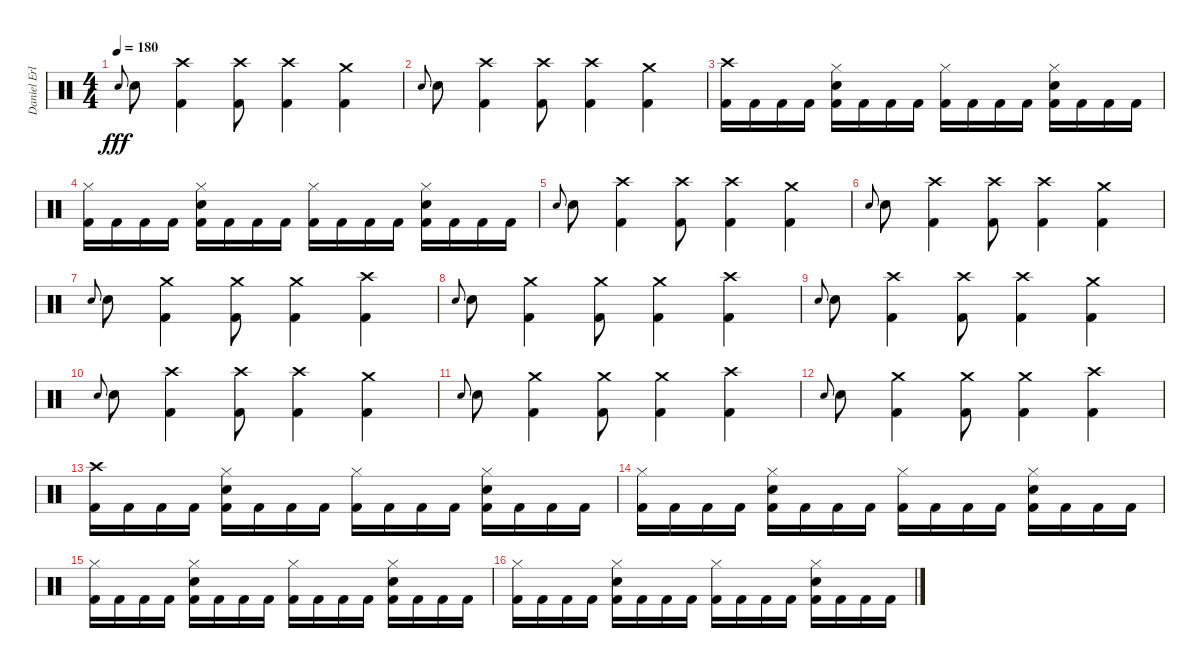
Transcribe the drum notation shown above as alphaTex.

\track ("Daniel Erlandsson" "Daniel Erl") {instrument percussion}
\staff {score}
\articulation defaults
\ts (4 4)
\tempo 180
\clef neutral
\ks c "Electric Snare (hit)".8{gr onbeat dy fff} "Electric Snare (hit)".8
("Crash high (hit)" "Kick (hit) 2").4 ("Crash high (hit)" "Kick (hit) 2").8 ("Crash high (hit)" "Kick (hit) 2").4 ("Crash medium (hit)" "Kick (hit) 2").4 |
"Electric Snare (hit)".8{gr onbeat} "Electric Snare (hit)".8 ("Crash high (hit)" "Kick (hit) 2").4 ("Crash high (hit)" "Kick (hit) 2").8 ("Crash high (hit)" "Kick (hit) 2").4 ("Crash medium (hit)" "Kick (hit) 2").4 |
("Crash high (hit)" "Kick (hit) 2").16 "Kick (hit) 2".16 "Kick (hit) 2".16 "Kick (hit) 2".16 ("Hi-Hat (closed)" "Electric Snare (hit)" "Kick (hit) 2").16 "Kick (hit) 2".16 "Kick (hit) 2".16 "Kick (hit) 2".16 ("Hi-Hat (closed)" "Kick (hit) 2").16 "Kick (hit) 2".16 "Kick (hit) 2".16 "Kick (hit) 2".16 ("Hi-Hat (closed)" "Electric Snare (hit)" "Kick (hit) 2").16 "Kick (hit) 2".16 "Kick (hit) 2".16 "Kick (hit) 2".16 |
("Hi-Hat (closed)" "Kick (hit) 2").16 "Kick (hit) 2".16 "Kick (hit) 2".16 "Kick (hit) 2".16 ("Hi-Hat (closed)" "Electric Snare (hit)" "Kick (hit) 2").16 "Kick (hit) 2".16 "Kick (hit) 2".16 "Kick (hit) 2".16 ("Hi-Hat (closed)" "Kick (hit) 2").16 "Kick (hit) 2".16 "Kick (hit) 2".16 "Kick (hit) 2".16 ("Hi-Hat (closed)" "Electric Snare (hit)" "Kick (hit) 2").16 "Kick (hit) 2".16 "Kick (hit) 2".16 "Kick (hit) 2".16 |
"Electric Snare (hit)".8{gr onbeat} "Electric Snare (hit)".8 ("Crash high (hit)" "Kick (hit) 2").4 ("Crash high (hit)" "Kick (hit) 2").8 ("Crash high (hit)" "Kick (hit) 2").4 ("Crash medium (hit)" "Kick (hit) 2").4 |
"Electric Snare (hit)".8{gr onbeat} "Electric Snare (hit)".8 ("Crash high (hit)" "Kick (hit) 2").4 ("Crash high (hit)" "Kick (hit) 2").8 ("Crash high (hit)" "Kick (hit) 2").4 ("Crash medium (hit)" "Kick (hit) 2").4 |
"Electric Snare (hit)".8{gr onbeat} "Electric Snare (hit)".8 ("Crash medium (hit)" "Kick (hit) 2").4 ("Crash medium (hit)" "Kick (hit) 2").8 ("Crash medium (hit)" "Kick (hit) 2").4 ("Crash high (hit)" "Kick (hit) 2").4 |
"Electric Snare (hit)".8{gr onbeat} "Electric Snare (hit)".8 ("Crash medium (hit)" "Kick (hit) 2").4 ("Crash medium (hit)" "Kick (hit) 2").8 ("Crash medium (hit)" "Kick (hit) 2").4 ("Crash high (hit)" "Kick (hit) 2").4 |
"Electric Snare (hit)".8{gr onbeat} "Electric Snare (hit)".8 ("Crash high (hit)" "Kick (hit) 2").4 ("Crash high (hit)" "Kick (hit) 2").8 ("Crash high (hit)" "Kick (hit) 2").4 ("Crash medium (hit)" "Kick (hit) 2").4 |
"Electric Snare (hit)".8{gr onbeat} "Electric Snare (hit)".8 ("Crash high (hit)" "Kick (hit) 2").4 ("Crash high (hit)" "Kick (hit) 2").8 ("Crash high (hit)" "Kick (hit) 2").4 ("Crash medium (hit)" "Kick (hit) 2").4 |
"Electric Snare (hit)".8{gr onbeat} "Electric Snare (hit)".8 ("Crash medium (hit)" "Kick (hit) 2").4 ("Crash medium (hit)" "Kick (hit) 2").8 ("Crash medium (hit)" "Kick (hit) 2").4 ("Crash high (hit)" "Kick (hit) 2").4 |
"Electric Snare (hit)".8{gr onbeat} "Electric Snare (hit)".8 ("Crash medium (hit)" "Kick (hit) 2").4 ("Crash medium (hit)" "Kick (hit) 2").8 ("Crash medium (hit)" "Kick (hit) 2").4 ("Crash high (hit)" "Kick (hit) 2").4 |
("Crash high (hit)" "Kick (hit) 2").16 "Kick (hit) 2".16 "Kick (hit) 2".16 "Kick (hit) 2".16 ("Hi-Hat (closed)" "Electric Snare (hit)" "Kick (hit) 2").16 "Kick (hit) 2".16 "Kick (hit) 2".16 "Kick (hit) 2".16 ("Hi-Hat (closed)" "Kick (hit) 2").16 "Kick (hit) 2".16 "Kick (hit) 2".16 "Kick (hit) 2".16 ("Hi-Hat (closed)" "Electric Snare (hit)" "Kick (hit) 2").16 "Kick (hit) 2".16 "Kick (hit) 2".16 "Kick (hit) 2".16 |
("Hi-Hat (closed)" "Kick (hit) 2").16 "Kick (hit) 2".16 "Kick (hit) 2".16 "Kick (hit) 2".16 ("Hi-Hat (closed)" "Electric Snare (hit)" "Kick (hit) 2").16 "Kick (hit) 2".16 "Kick (hit) 2".16 "Kick (hit) 2".16 ("Hi-Hat (closed)" "Kick (hit) 2").16 "Kick (hit) 2".16 "Kick (hit) 2".16 "Kick (hit) 2".16 ("Hi-Hat (closed)" "Electric Snare (hit)" "Kick (hit) 2").16 "Kick (hit) 2".16 "Kick (hit) 2".16 "Kick (hit) 2".16 |
("Hi-Hat (closed)" "Kick (hit) 2").16 "Kick (hit) 2".16 "Kick (hit) 2".16 "Kick (hit) 2".16 ("Hi-Hat (closed)" "Electric Snare (hit)" "Kick (hit) 2").16 "Kick (hit) 2".16 "Kick (hit) 2".16 "Kick (hit) 2".16 ("Hi-Hat (closed)" "Kick (hit) 2").16 "Kick (hit) 2".16 "Kick (hit) 2".16 "Kick (hit) 2".16 ("Hi-Hat (closed)" "Electric Snare (hit)" "Kick (hit) 2").16 "Kick (hit) 2".16 "Kick (hit) 2".16 "Kick (hit) 2".16 |
("Hi-Hat (closed)" "Kick (hit) 2").16 "Kick (hit) 2".16 "Kick (hit) 2".16 "Kick (hit) 2".16 ("Hi-Hat (closed)" "Electric Snare (hit)" "Kick (hit) 2").16 "Kick (hit) 2".16 "Kick (hit) 2".16 "Kick (hit) 2".16 ("Hi-Hat (closed)" "Kick (hit) 2").16 "Kick (hit) 2".16 "Kick (hit) 2".16 "Kick (hit) 2".16 ("Hi-Hat (closed)" "Electric Snare (hit)" "Kick (hit) 2").16 "Kick (hit) 2".16 "Kick (hit) 2".16 "Kick (hit) 2".16
